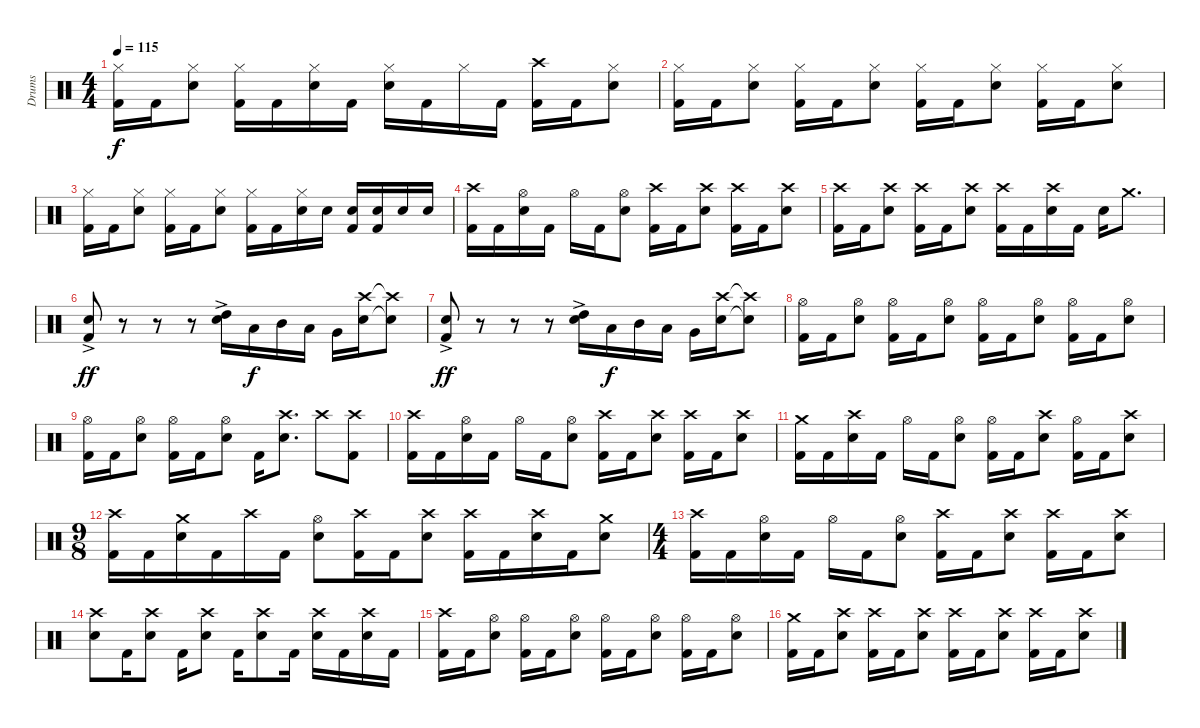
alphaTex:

\track ("Drums" "Drums") {instrument percussion}
\staff {score}
\articulation defaults
\ts (4 4)
\tempo 115
\clef neutral
\ks c
("Hi-Hat (closed)" "Kick (hit) 2").16{dy f} "Kick (hit) 2".16 ("Hi-Hat (closed)" "Electric Snare (hit)").8 ("Hi-Hat (closed)" "Kick (hit) 2").16 "Kick (hit) 2".16 ("Hi-Hat (closed)" "Electric Snare (hit)").16 "Kick (hit) 2".16 ("Hi-Hat (closed)" "Electric Snare (hit)").16 "Kick (hit) 2".16 "Hi-Hat (closed)".16 "Kick (hit) 2".16 ("Crash high (hit)" "Kick (hit) 2").16 "Kick (hit) 2".16 ("Hi-Hat (closed)" "Electric Snare (hit)").8 |
("Hi-Hat (closed)" "Kick (hit) 2").16 "Kick (hit) 2".16 ("Hi-Hat (closed)" "Electric Snare (hit)").8 ("Hi-Hat (closed)" "Kick (hit) 2").16 "Kick (hit) 2".16 ("Hi-Hat (closed)" "Electric Snare (hit)").8 ("Hi-Hat (closed)" "Kick (hit) 2").16 "Kick (hit) 2".16 ("Hi-Hat (closed)" "Electric Snare (hit)").8 ("Hi-Hat (closed)" "Kick (hit) 2").16 "Kick (hit) 2".16 ("Hi-Hat (closed)" "Electric Snare (hit)").8 |
("Hi-Hat (closed)" "Kick (hit) 2").16 "Kick (hit) 2".16 ("Hi-Hat (closed)" "Electric Snare (hit)").8 ("Hi-Hat (closed)" "Kick (hit) 2").16 "Kick (hit) 2".16 ("Hi-Hat (closed)" "Electric Snare (hit)").8 ("Hi-Hat (closed)" "Kick (hit) 2").16 "Kick (hit) 2".16 ("Hi-Hat (closed)" "Electric Snare (hit)").16 "Electric Snare (hit)".16 ("Electric Snare (hit)" "Kick (hit) 2").16 ("Electric Snare (hit)" "Kick (hit) 2").16 "Electric Snare (hit)".16 "Electric Snare (hit)".16 |
("Crash high (hit)" "Kick (hit) 2").16 "Kick (hit) 2".16 ("Hi-Hat (open)" "Electric Snare (hit)").16 "Kick (hit) 2".16 "Hi-Hat (open)".16 "Kick (hit) 2".16 ("Hi-Hat (open)" "Electric Snare (hit)").8 ("Crash high (hit)" "Kick (hit) 2").16 "Kick (hit) 2".16 ("Crash high (hit)" "Electric Snare (hit)").8 ("Crash high (hit)" "Kick (hit) 2").16 "Kick (hit) 2".16 ("Crash high (hit)" "Electric Snare (hit)").8 |
("Crash high (hit)" "Kick (hit) 2").16 "Kick (hit) 2".16 ("Crash high (hit)" "Electric Snare (hit)").8 ("Crash high (hit)" "Kick (hit) 2").16 "Kick (hit) 2".16 ("Crash high (hit)" "Electric Snare (hit)").8 ("Crash high (hit)" "Kick (hit) 2").16 "Kick (hit) 2".16 ("Crash high (hit)" "Electric Snare (hit)").16 "Kick (hit) 2".16 "Electric Snare (hit)".16 "Crash medium (hit)".8{d} |
("Electric Snare (hit)"{ac} "Kick (hit) 2"{ac}).8{dy ff} r.8 r.8 r.8 ("High Tom (hit)"{ac} "Electric Snare (hit)"{ac}).16 "Low Tom (hit)".16{dy f} "Mid Tom (hit)".16 "Low Floor Tom (hit)".16 "Very Low Tom (hit)".16 ("Crash high (hit)" "Electric Snare (hit)").16 ("Crash high (hit)"{t} "Electric Snare (hit)"{t}).8 |
("Electric Snare (hit)"{ac} "Kick (hit) 2"{ac}).8{dy ff} r.8 r.8 r.8 ("High Tom (hit)"{ac} "Electric Snare (hit)"{ac}).16 "Low Tom (hit)".16{dy f} "Mid Tom (hit)".16 "Low Floor Tom (hit)".16 "Very Low Tom (hit)".16 ("Crash high (hit)" "Electric Snare (hit)").16 ("Crash high (hit)"{t} "Electric Snare (hit)"{t}).8 |
("Hi-Hat (open)" "Kick (hit) 2").16 "Kick (hit) 2".16 ("Hi-Hat (open)" "Electric Snare (hit)").8 ("Hi-Hat (open)" "Kick (hit) 2").16 "Kick (hit) 2".16 ("Hi-Hat (open)" "Electric Snare (hit)").8 ("Hi-Hat (open)" "Kick (hit) 2").16 "Kick (hit) 2".16 ("Hi-Hat (open)" "Electric Snare (hit)").8 ("Hi-Hat (open)" "Kick (hit) 2").16 "Kick (hit) 2".16 ("Hi-Hat (open)" "Electric Snare (hit)").8 |
("Hi-Hat (open)" "Kick (hit) 2").16 "Kick (hit) 2".16 ("Hi-Hat (open)" "Electric Snare (hit)").8 ("Hi-Hat (open)" "Kick (hit) 2").16 "Kick (hit) 2".16 ("Hi-Hat (open)" "Electric Snare (hit)").8 "Kick (hit) 2".16 ("Crash high (hit)" "Electric Snare (hit)").8{d} "Crash high (hit)".8 ("Crash high (hit)" "Kick (hit) 2").8 |
("Crash high (hit)" "Kick (hit) 2").16 "Kick (hit) 2".16 ("Hi-Hat (open)" "Electric Snare (hit)").16 "Kick (hit) 2".16 "Hi-Hat (open)".16 "Kick (hit) 2".16 ("Hi-Hat (open)" "Electric Snare (hit)").8 ("Crash high (hit)" "Kick (hit) 2").16 "Kick (hit) 2".16 ("Crash high (hit)" "Electric Snare (hit)").8 ("Crash high (hit)" "Kick (hit) 2").16 "Kick (hit) 2".16 ("Crash high (hit)" "Electric Snare (hit)").8 |
("Crash medium (hit)" "Kick (hit) 2").16 "Kick (hit) 2".16 ("Crash high (hit)" "Electric Snare (hit)").16 "Kick (hit) 2".16 "Hi-Hat (open)".16 "Kick (hit) 2".16 ("Hi-Hat (open)" "Electric Snare (hit)").8 ("Hi-Hat (open)" "Kick (hit) 2").16 "Kick (hit) 2".16 ("Crash high (hit)" "Electric Snare (hit)").8 ("Hi-Hat (open)" "Kick (hit) 2").16 "Kick (hit) 2".16 ("Crash high (hit)" "Electric Snare (hit)").8 |
\ts (9 8)
("Crash high (hit)" "Kick (hit) 2").16 "Kick (hit) 2".16 ("Crash medium (hit)" "Electric Snare (hit)").16 "Kick (hit) 2".16 "Crash high (hit)".16 "Kick (hit) 2".16 ("Hi-Hat (open)" "Electric Snare (hit)").8 ("Crash high (hit)" "Kick (hit) 2").16 "Kick (hit) 2".16 ("Crash high (hit)" "Electric Snare (hit)").8 ("Crash high (hit)" "Kick (hit) 2").16 "Kick (hit) 2".16 ("Crash high (hit)" "Electric Snare (hit)").16 "Kick (hit) 2".16 ("Crash medium (hit)" "Electric Snare (hit)").8 |
\ts (4 4)
("Crash high (hit)" "Kick (hit) 2").16 "Kick (hit) 2".16 ("Hi-Hat (open)" "Electric Snare (hit)").16 "Kick (hit) 2".16 "Hi-Hat (open)".16 "Kick (hit) 2".16 ("Hi-Hat (open)" "Electric Snare (hit)").8 ("Crash high (hit)" "Kick (hit) 2").16 "Kick (hit) 2".16 ("Crash high (hit)" "Electric Snare (hit)").8 ("Crash high (hit)" "Kick (hit) 2").16 "Kick (hit) 2".16 ("Crash high (hit)" "Electric Snare (hit)").8 |
("Crash high (hit)" "Electric Snare (hit)").8 "Kick (hit) 2".16 ("Crash high (hit)" "Electric Snare (hit)").8 "Kick (hit) 2".16 ("Crash high (hit)" "Electric Snare (hit)").8 "Kick (hit) 2".16 ("Crash high (hit)" "Electric Snare (hit)").8 "Kick (hit) 2".16 ("Crash high (hit)" "Electric Snare (hit)").16 "Kick (hit) 2".16 ("Crash high (hit)" "Electric Snare (hit)").16 "Kick (hit) 2".16 |
("Crash high (hit)" "Kick (hit) 2").16 "Kick (hit) 2".16 ("Hi-Hat (open)" "Electric Snare (hit)").8 ("Hi-Hat (open)" "Kick (hit) 2").16 "Kick (hit) 2".16 ("Hi-Hat (open)" "Electric Snare (hit)").8 ("Hi-Hat (open)" "Kick (hit) 2").16 "Kick (hit) 2".16 ("Hi-Hat (open)" "Electric Snare (hit)").8 ("Hi-Hat (open)" "Kick (hit) 2").16 "Kick (hit) 2".16 ("Hi-Hat (open)" "Electric Snare (hit)").8 |
("Crash medium (hit)" "Kick (hit) 2").16 "Kick (hit) 2".16 ("Crash high (hit)" "Electric Snare (hit)").8 ("Crash high (hit)" "Kick (hit) 2").16 "Kick (hit) 2".16 ("Crash high (hit)" "Electric Snare (hit)").8 ("Crash high (hit)" "Kick (hit) 2").16 "Kick (hit) 2".16 ("Crash high (hit)" "Electric Snare (hit)").8 ("Crash high (hit)" "Kick (hit) 2").16 "Kick (hit) 2".16 ("Crash high (hit)" "Electric Snare (hit)").8
